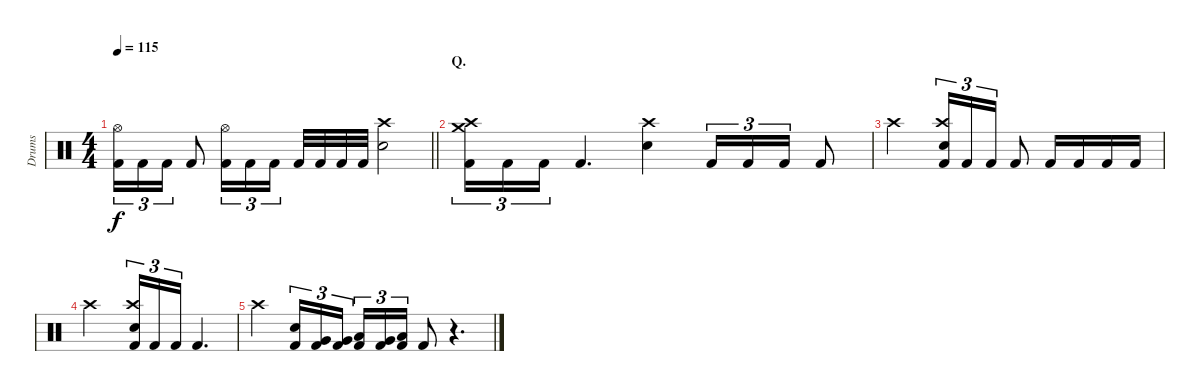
\track ("Drums" "Drums") {instrument percussion}
\staff {score}
\articulation defaults
\ts (4 4)
\tempo 115
\clef neutral
\barLineRight lightlight
\ks c
("Hi-Hat (open)" "Kick (hit) 2").16{tu (3 2) dy f} "Kick (hit) 2".16{tu (3 2)} "Kick (hit) 2".16{tu (3 2)} "Kick (hit) 2".8 ("Hi-Hat (open)" "Kick (hit) 2").16{tu (3 2)} "Kick (hit) 2".16{tu (3 2)} "Kick (hit) 2".16{tu (3 2) beam splitsecondary} "Kick (hit) 2".32 "Kick (hit) 2".32 "Kick (hit) 2".32 "Kick (hit) 2".32 ("Crash high (hit)" "Electric Snare (hit)").2 |
\section ("" "Q.")
("Crash medium (hit)" "Crash high (hit)" "Kick (hit) 2").16{tu (3 2)} "Kick (hit) 2".16{tu (3 2)} "Kick (hit) 2".16{tu (3 2)} "Kick (hit) 2".4{d} ("Crash high (hit)" "Electric Snare (hit)").4 "Kick (hit) 2".16{tu (3 2)} "Kick (hit) 2".16{tu (3 2)} "Kick (hit) 2".16{tu (3 2)} "Kick (hit) 2".8 |
"Crash high (hit)".2 ("Crash high (hit)" "Electric Snare (hit)" "Kick (hit) 2").16{tu (3 2)} "Kick (hit) 2".16{tu (3 2)} "Kick (hit) 2".16{tu (3 2)} "Kick (hit) 2".8 "Kick (hit) 2".16 "Kick (hit) 2".16 "Kick (hit) 2".16 "Kick (hit) 2".16 |
"Crash high (hit)".2 ("Crash high (hit)" "Electric Snare (hit)" "Kick (hit) 2").16{tu (3 2)} "Kick (hit) 2".16{tu (3 2)} "Kick (hit) 2".16{tu (3 2)} "Kick (hit) 2".4{d} |
"Crash high (hit)".4 ("Electric Snare (hit)" "Kick (hit) 2").16{tu (3 2)} ("Very Low Tom (hit)" "Kick (hit) 2").16{tu (3 2)} ("Very Low Tom (hit)" "Kick (hit) 2").16{tu (3 2) beam splitsecondary} ("Low Tom (hit)" "Kick (hit) 2").16{tu (3 2)} ("Very Low Tom (hit)" "Kick (hit) 2").16{tu (3 2)} ("Low Floor Tom (hit)" "Kick (hit) 2").16{tu (3 2)} "Kick (hit) 2".8 r.4{d}
